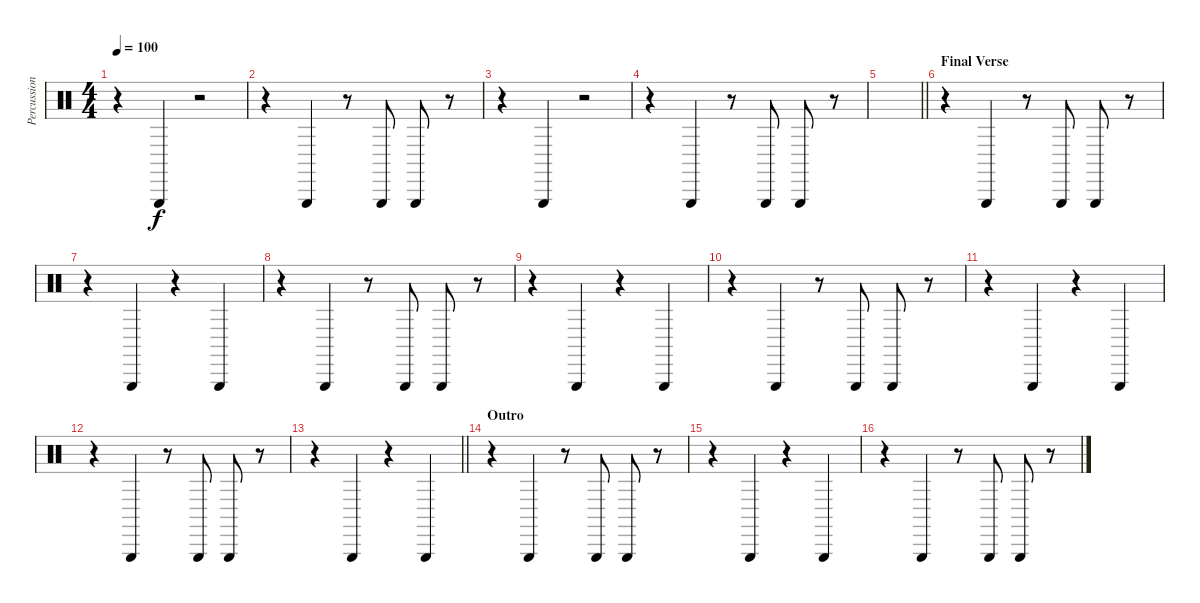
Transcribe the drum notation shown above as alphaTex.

\track ("Percussion - Joe Plummer" "Percussion") {instrument percussion}
\staff {score}
\articulation defaults
\ts (4 4)
\tempo 100
\clef neutral
\ks c
r.4{dy f} "Triangle (hit)".4 r.2 |
r.4 "Triangle (hit)".4 r.8 "Triangle (hit)".8 "Triangle (hit)".8 r.8 |
r.4 "Triangle (hit)".4 r.2 |
r.4 "Triangle (hit)".4 r.8 "Triangle (hit)".8 "Triangle (hit)".8 r.8 |
\barLineRight lightlight
|
\section ("" "Final Verse")
r.4 "Triangle (hit)".4 r.8 "Triangle (hit)".8 "Triangle (hit)".8 r.8 |
r.4 "Triangle (hit)".4 r.4 "Triangle (hit)".4 |
r.4 "Triangle (hit)".4 r.8 "Triangle (hit)".8 "Triangle (hit)".8 r.8 |
r.4 "Triangle (hit)".4 r.4 "Triangle (hit)".4 |
r.4 "Triangle (hit)".4 r.8 "Triangle (hit)".8 "Triangle (hit)".8 r.8 |
r.4 "Triangle (hit)".4 r.4 "Triangle (hit)".4 |
r.4 "Triangle (hit)".4 r.8 "Triangle (hit)".8 "Triangle (hit)".8 r.8 |
\barLineRight lightlight
r.4 "Triangle (hit)".4 r.4 "Triangle (hit)".4 |
\section ("" "Outro")
r.4 "Triangle (hit)".4 r.8 "Triangle (hit)".8 "Triangle (hit)".8 r.8 |
r.4 "Triangle (hit)".4 r.4 "Triangle (hit)".4 |
r.4 "Triangle (hit)".4 r.8 "Triangle (hit)".8 "Triangle (hit)".8 r.8
